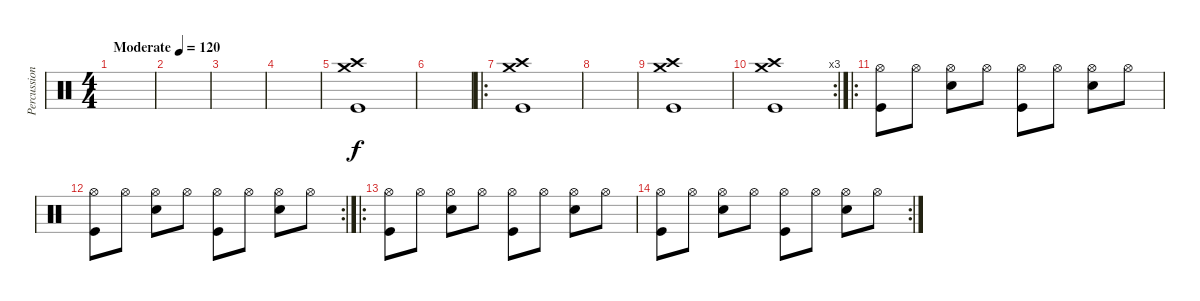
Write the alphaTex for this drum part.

\track ("Percussion" "Percussion") {instrument percussion}
\staff {score}
\articulation defaults
\ts (4 4)
\tempo (120 "Moderate")
\clef neutral
\ks c
|
|
|
|
("Crash medium (hit)" "Crash high (hit)" "Kick (hit)").1 |
|
\ro
("Crash medium (hit)" "Crash high (hit)" "Kick (hit)").1 |
|
("Crash medium (hit)" "Crash high (hit)" "Kick (hit)").1 |
\rc 3
("Crash medium (hit)" "Crash high (hit)" "Kick (hit)").1 |
\ro
("Hi-Hat (open)" "Kick (hit)").8 "Hi-Hat (open)".8 ("Hi-Hat (open)" "Snare (hit) 2").8 "Hi-Hat (open)".8 ("Hi-Hat (open)" "Kick (hit)").8 "Hi-Hat (open)".8 ("Hi-Hat (open)" "Snare (hit) 2").8 "Hi-Hat (open)".8 |
\rc 2
("Hi-Hat (open)" "Kick (hit)").8 "Hi-Hat (open)".8 ("Hi-Hat (open)" "Snare (hit) 2").8 "Hi-Hat (open)".8 ("Hi-Hat (open)" "Kick (hit)").8 "Hi-Hat (open)".8 ("Hi-Hat (open)" "Snare (hit) 2").8 "Hi-Hat (open)".8 |
\ro
("Hi-Hat (open)" "Kick (hit)").8 "Hi-Hat (open)".8 ("Hi-Hat (open)" "Snare (hit) 2").8 "Hi-Hat (open)".8 ("Hi-Hat (open)" "Kick (hit)").8 "Hi-Hat (open)".8 ("Hi-Hat (open)" "Snare (hit) 2").8 "Hi-Hat (open)".8 |
\rc 2
("Hi-Hat (open)" "Kick (hit)").8 "Hi-Hat (open)".8 ("Hi-Hat (open)" "Snare (hit) 2").8 "Hi-Hat (open)".8 ("Hi-Hat (open)" "Kick (hit)").8 "Hi-Hat (open)".8 ("Hi-Hat (open)" "Snare (hit) 2").8 "Hi-Hat (open)".8
